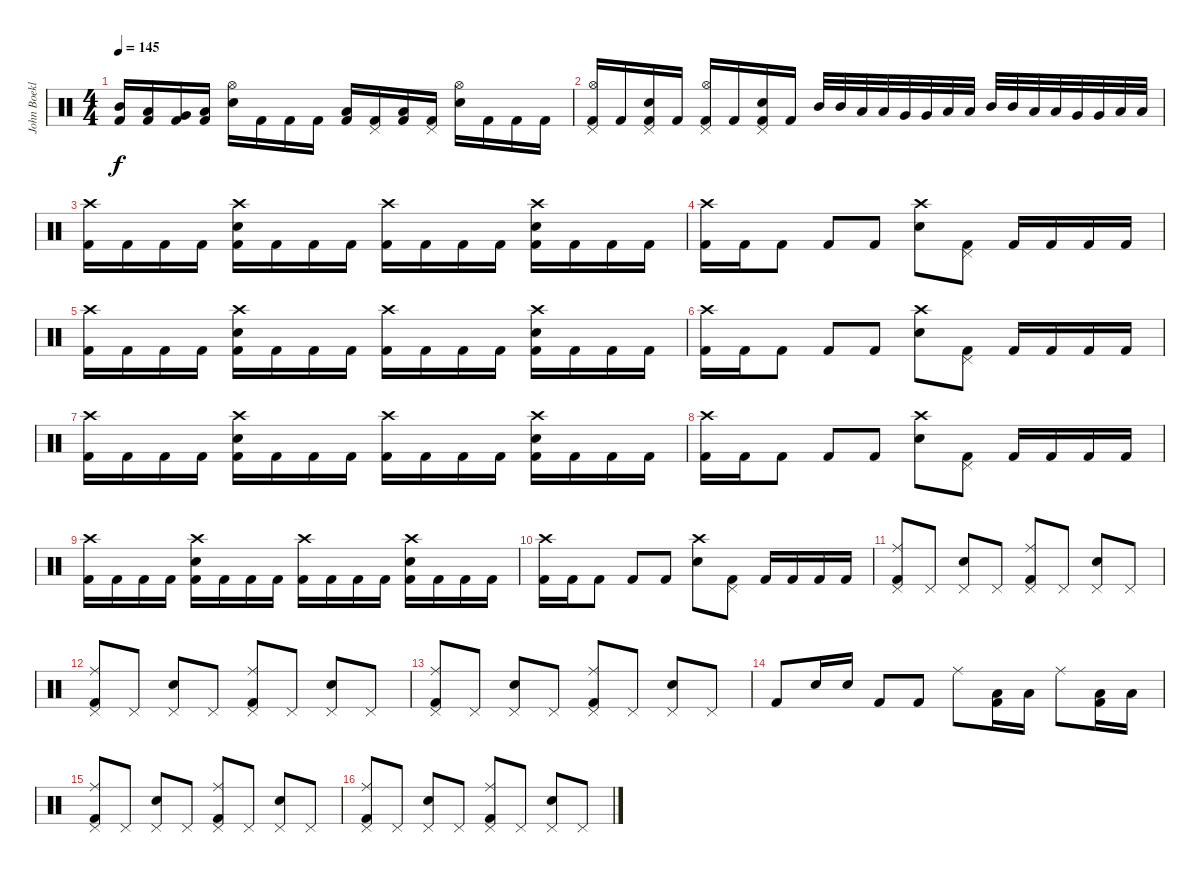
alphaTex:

\track ("John Boeklin" "John Boekl") {instrument percussion}
\staff {score}
\articulation defaults
\ts (4 4)
\tempo 145
\clef neutral
\ks c
("Mid Tom (hit)" "Kick (hit) 2").16{dy f} ("Low Tom (hit)" "Kick (hit) 2").16 ("Very Low Tom (hit)" "Kick (hit) 2").16 ("Low Floor Tom (hit)" "Kick (hit) 2").16 ("Electric Snare (hit)" "Hi-Hat (open)").16 "Kick (hit) 2".16 "Kick (hit) 2".16 "Kick (hit) 2".16 ("Low Floor Tom (hit)" "Kick (hit) 2").16 ("Pedal Hi-Hat (hit)" "Kick (hit) 2").16 ("Low Floor Tom (hit)" "Kick (hit) 2").16 ("Pedal Hi-Hat (hit)" "Kick (hit) 2").16 ("Electric Snare (hit)" "Hi-Hat (open)").16 "Kick (hit) 2".16 "Kick (hit) 2".16 "Kick (hit) 2".16 |
("Hi-Hat (open)" "Pedal Hi-Hat (hit)" "Kick (hit) 2").16 "Kick (hit) 2".16 ("Pedal Hi-Hat (hit)" "Electric Snare (hit)" "Kick (hit) 2").16 "Kick (hit) 2".16 ("Hi-Hat (open)" "Pedal Hi-Hat (hit)" "Kick (hit) 2").16 "Kick (hit) 2".16 ("Pedal Hi-Hat (hit)" "Electric Snare (hit)" "Kick (hit) 2").16 "Kick (hit) 2".16 "Mid Tom (hit)".32 "Mid Tom (hit)".32 "Low Tom (hit)".32 "Low Tom (hit)".32 "Very Low Tom (hit)".32 "Very Low Tom (hit)".32 "Low Floor Tom (hit)".32 "Low Floor Tom (hit)".32 "Mid Tom (hit)".32 "Mid Tom (hit)".32 "Low Tom (hit)".32 "Low Tom (hit)".32 "Very Low Tom (hit)".32 "Very Low Tom (hit)".32 "Low Floor Tom (hit)".32 "Low Floor Tom (hit)".32 |
("Crash high (hit)" "Kick (hit) 2").16 "Kick (hit) 2".16 "Kick (hit) 2".16 "Kick (hit) 2".16 ("Crash high (hit)" "Electric Snare (hit)" "Kick (hit) 2").16 "Kick (hit) 2".16 "Kick (hit) 2".16 "Kick (hit) 2".16 ("Crash high (hit)" "Kick (hit) 2").16 "Kick (hit) 2".16 "Kick (hit) 2".16 "Kick (hit) 2".16 ("Crash high (hit)" "Electric Snare (hit)" "Kick (hit) 2").16 "Kick (hit) 2".16 "Kick (hit) 2".16 "Kick (hit) 2".16 |
("Crash high (hit)" "Kick (hit) 2").16 "Kick (hit) 2".16 "Kick (hit) 2".8 "Kick (hit) 2".8 "Kick (hit) 2".8 ("Electric Snare (hit)" "Crash high (hit)").8 ("Pedal Hi-Hat (hit)" "Kick (hit) 2").8 "Kick (hit) 2".16 "Kick (hit) 2".16 "Kick (hit) 2".16 "Kick (hit) 2".16 |
("Crash high (hit)" "Kick (hit) 2").16 "Kick (hit) 2".16 "Kick (hit) 2".16 "Kick (hit) 2".16 ("Crash high (hit)" "Electric Snare (hit)" "Kick (hit) 2").16 "Kick (hit) 2".16 "Kick (hit) 2".16 "Kick (hit) 2".16 ("Crash high (hit)" "Kick (hit) 2").16 "Kick (hit) 2".16 "Kick (hit) 2".16 "Kick (hit) 2".16 ("Crash high (hit)" "Electric Snare (hit)" "Kick (hit) 2").16 "Kick (hit) 2".16 "Kick (hit) 2".16 "Kick (hit) 2".16 |
("Crash high (hit)" "Kick (hit) 2").16 "Kick (hit) 2".16 "Kick (hit) 2".8 "Kick (hit) 2".8 "Kick (hit) 2".8 ("Electric Snare (hit)" "Crash high (hit)").8 ("Pedal Hi-Hat (hit)" "Kick (hit) 2").8 "Kick (hit) 2".16 "Kick (hit) 2".16 "Kick (hit) 2".16 "Kick (hit) 2".16 |
("Crash high (hit)" "Kick (hit) 2").16 "Kick (hit) 2".16 "Kick (hit) 2".16 "Kick (hit) 2".16 ("Crash high (hit)" "Electric Snare (hit)" "Kick (hit) 2").16 "Kick (hit) 2".16 "Kick (hit) 2".16 "Kick (hit) 2".16 ("Crash high (hit)" "Kick (hit) 2").16 "Kick (hit) 2".16 "Kick (hit) 2".16 "Kick (hit) 2".16 ("Crash high (hit)" "Electric Snare (hit)" "Kick (hit) 2").16 "Kick (hit) 2".16 "Kick (hit) 2".16 "Kick (hit) 2".16 |
("Crash high (hit)" "Kick (hit) 2").16 "Kick (hit) 2".16 "Kick (hit) 2".8 "Kick (hit) 2".8 "Kick (hit) 2".8 ("Electric Snare (hit)" "Crash high (hit)").8 ("Pedal Hi-Hat (hit)" "Kick (hit) 2").8 "Kick (hit) 2".16 "Kick (hit) 2".16 "Kick (hit) 2".16 "Kick (hit) 2".16 |
("Crash high (hit)" "Kick (hit) 2").16 "Kick (hit) 2".16 "Kick (hit) 2".16 "Kick (hit) 2".16 ("Crash high (hit)" "Electric Snare (hit)" "Kick (hit) 2").16 "Kick (hit) 2".16 "Kick (hit) 2".16 "Kick (hit) 2".16 ("Crash high (hit)" "Kick (hit) 2").16 "Kick (hit) 2".16 "Kick (hit) 2".16 "Kick (hit) 2".16 ("Crash high (hit)" "Electric Snare (hit)" "Kick (hit) 2").16 "Kick (hit) 2".16 "Kick (hit) 2".16 "Kick (hit) 2".16 |
("Crash high (hit)" "Kick (hit) 2").16 "Kick (hit) 2".16 "Kick (hit) 2".8 "Kick (hit) 2".8 "Kick (hit) 2".8 ("Electric Snare (hit)" "Crash high (hit)").8 ("Pedal Hi-Hat (hit)" "Kick (hit) 2").8 "Kick (hit) 2".16 "Kick (hit) 2".16 "Kick (hit) 2".16 "Kick (hit) 2".16 |
("Pedal Hi-Hat (hit)" "Ride (middle)" "Kick (hit) 2").8 "Pedal Hi-Hat (hit)".8 ("Pedal Hi-Hat (hit)" "Electric Snare (hit)").8 "Pedal Hi-Hat (hit)".8 ("Pedal Hi-Hat (hit)" "Ride (middle)" "Kick (hit) 2").8 "Pedal Hi-Hat (hit)".8 ("Pedal Hi-Hat (hit)" "Electric Snare (hit)").8 "Pedal Hi-Hat (hit)".8 |
("Pedal Hi-Hat (hit)" "Ride (middle)" "Kick (hit) 2").8 "Pedal Hi-Hat (hit)".8 ("Pedal Hi-Hat (hit)" "Electric Snare (hit)").8 "Pedal Hi-Hat (hit)".8 ("Pedal Hi-Hat (hit)" "Ride (middle)" "Kick (hit) 2").8 "Pedal Hi-Hat (hit)".8 ("Pedal Hi-Hat (hit)" "Electric Snare (hit)").8 "Pedal Hi-Hat (hit)".8 |
("Pedal Hi-Hat (hit)" "Ride (middle)" "Kick (hit) 2").8 "Pedal Hi-Hat (hit)".8 ("Pedal Hi-Hat (hit)" "Electric Snare (hit)").8 "Pedal Hi-Hat (hit)".8 ("Pedal Hi-Hat (hit)" "Ride (middle)" "Kick (hit) 2").8 "Pedal Hi-Hat (hit)".8 ("Pedal Hi-Hat (hit)" "Electric Snare (hit)").8 "Pedal Hi-Hat (hit)".8 |
"Kick (hit) 2".8 "Electric Snare (hit)".16 "Electric Snare (hit)".16 "Kick (hit) 2".8 "Kick (hit) 2".8 "Ride (middle)".8 ("Low Floor Tom (hit)" "Kick (hit) 2").16 "Low Floor Tom (hit)".16 "Ride (middle)".8 ("Low Floor Tom (hit)" "Kick (hit) 2").16 "Low Floor Tom (hit)".16 |
("Pedal Hi-Hat (hit)" "Ride (middle)" "Kick (hit) 2").8 "Pedal Hi-Hat (hit)".8 ("Pedal Hi-Hat (hit)" "Electric Snare (hit)").8 "Pedal Hi-Hat (hit)".8 ("Pedal Hi-Hat (hit)" "Ride (middle)" "Kick (hit) 2").8 "Pedal Hi-Hat (hit)".8 ("Pedal Hi-Hat (hit)" "Electric Snare (hit)").8 "Pedal Hi-Hat (hit)".8 |
("Pedal Hi-Hat (hit)" "Ride (middle)" "Kick (hit) 2").8 "Pedal Hi-Hat (hit)".8 ("Pedal Hi-Hat (hit)" "Electric Snare (hit)").8 "Pedal Hi-Hat (hit)".8 ("Pedal Hi-Hat (hit)" "Ride (middle)" "Kick (hit) 2").8 "Pedal Hi-Hat (hit)".8 ("Pedal Hi-Hat (hit)" "Electric Snare (hit)").8 "Pedal Hi-Hat (hit)".8
